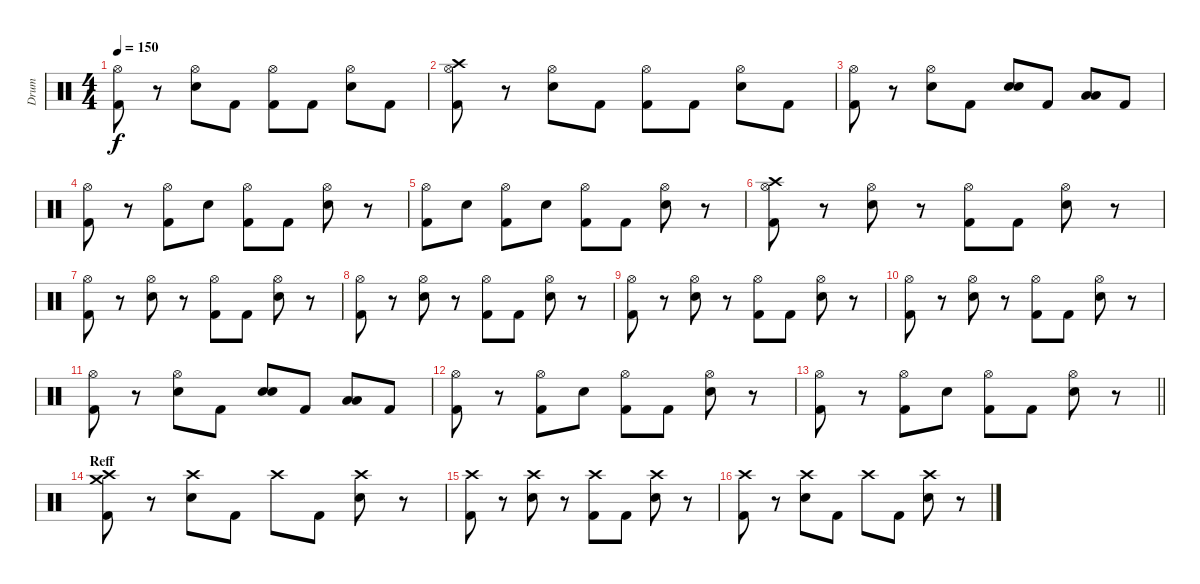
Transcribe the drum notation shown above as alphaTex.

\track ("Drum" "Drum") {instrument percussion}
\staff {score}
\articulation defaults
\ts (4 4)
\tempo 150
\clef neutral
\ks c
("Hi-Hat (open)" "Kick (hit) 2").8{dy f} r.8 ("Hi-Hat (open)" "Electric Snare (hit)").8 "Kick (hit) 2".8 ("Hi-Hat (open)" "Kick (hit) 2").8 "Kick (hit) 2".8 ("Hi-Hat (open)" "Electric Snare (hit)").8 "Kick (hit) 2".8 |
("Hi-Hat (open)" "Kick (hit) 2" "Crash high (hit)").8 r.8 ("Hi-Hat (open)" "Electric Snare (hit)").8 "Kick (hit) 2".8 ("Hi-Hat (open)" "Kick (hit) 2").8 "Kick (hit) 2".8 ("Hi-Hat (open)" "Electric Snare (hit)").8 "Kick (hit) 2".8 |
("Hi-Hat (open)" "Kick (hit) 2").8 r.8 ("Hi-Hat (open)" "Electric Snare (hit)").8 "Kick (hit) 2".8 ("Electric Snare (hit)" "Electric Snare (hit)").8 "Kick (hit) 2".8 ("Low Floor Tom (hit)" "Low Floor Tom (hit)").8 "Kick (hit) 2".8 |
("Hi-Hat (open)" "Kick (hit) 2").8 r.8 ("Hi-Hat (open)" "Kick (hit) 2").8 "Electric Snare (hit)".8 ("Hi-Hat (open)" "Kick (hit) 2").8 "Kick (hit) 2".8 ("Hi-Hat (open)" "Electric Snare (hit)").8 r.8 |
("Hi-Hat (open)" "Kick (hit) 2").8 "Electric Snare (hit)".8 ("Hi-Hat (open)" "Kick (hit) 2").8 "Electric Snare (hit)".8 ("Hi-Hat (open)" "Kick (hit) 2").8 "Kick (hit) 2".8 ("Hi-Hat (open)" "Electric Snare (hit)").8 r.8 |
("Hi-Hat (open)" "Kick (hit) 2" "Crash high (hit)").8 r.8 ("Hi-Hat (open)" "Electric Snare (hit)").8 r.8 ("Hi-Hat (open)" "Kick (hit) 2").8 "Kick (hit) 2".8 ("Hi-Hat (open)" "Electric Snare (hit)").8 r.8 |
("Hi-Hat (open)" "Kick (hit) 2").8 r.8 ("Hi-Hat (open)" "Electric Snare (hit)").8 r.8 ("Hi-Hat (open)" "Kick (hit) 2").8 "Kick (hit) 2".8 ("Hi-Hat (open)" "Electric Snare (hit)").8 r.8 |
("Hi-Hat (open)" "Kick (hit) 2").8 r.8 ("Hi-Hat (open)" "Electric Snare (hit)").8 r.8 ("Hi-Hat (open)" "Kick (hit) 2").8 "Kick (hit) 2".8 ("Hi-Hat (open)" "Electric Snare (hit)").8 r.8 |
("Hi-Hat (open)" "Kick (hit) 2").8 r.8 ("Hi-Hat (open)" "Electric Snare (hit)").8 r.8 ("Hi-Hat (open)" "Kick (hit) 2").8 "Kick (hit) 2".8 ("Hi-Hat (open)" "Electric Snare (hit)").8 r.8 |
("Hi-Hat (open)" "Kick (hit) 2").8 r.8 ("Hi-Hat (open)" "Electric Snare (hit)").8 r.8 ("Hi-Hat (open)" "Kick (hit) 2").8 "Kick (hit) 2".8 ("Hi-Hat (open)" "Electric Snare (hit)").8 r.8 |
("Hi-Hat (open)" "Kick (hit) 2").8 r.8 ("Hi-Hat (open)" "Electric Snare (hit)").8 "Kick (hit) 2".8 ("Electric Snare (hit)" "Electric Snare (hit)").8 "Kick (hit) 2".8 ("Low Floor Tom (hit)" "Low Floor Tom (hit)").8 "Kick (hit) 2".8 |
("Hi-Hat (open)" "Kick (hit) 2").8 r.8 ("Hi-Hat (open)" "Kick (hit) 2").8 "Electric Snare (hit)".8 ("Hi-Hat (open)" "Kick (hit) 2").8 "Kick (hit) 2".8 ("Hi-Hat (open)" "Electric Snare (hit)").8 r.8 |
\barLineRight lightlight
("Hi-Hat (open)" "Kick (hit) 2").8 r.8 ("Hi-Hat (open)" "Kick (hit) 2").8 "Electric Snare (hit)".8 ("Hi-Hat (open)" "Kick (hit) 2").8 "Kick (hit) 2".8 ("Hi-Hat (open)" "Electric Snare (hit)").8 r.8 |
\section ("" "Reff")
("Crash high (hit)" "Kick (hit) 2" "Crash medium (hit)").8 r.8 ("Crash high (hit)" "Electric Snare (hit)").8 "Kick (hit) 2".8 "Crash high (hit)".8 "Kick (hit) 2".8 ("Crash high (hit)" "Electric Snare (hit)").8 r.8 |
("Crash high (hit)" "Kick (hit) 2").8 r.8 ("Crash high (hit)" "Electric Snare (hit)").8 r.8 ("Crash high (hit)" "Kick (hit) 2").8 "Kick (hit) 2".8 ("Crash high (hit)" "Electric Snare (hit)").8 r.8 |
("Crash high (hit)" "Kick (hit) 2").8 r.8 ("Crash high (hit)" "Electric Snare (hit)").8 "Kick (hit) 2".8 "Crash high (hit)".8 "Kick (hit) 2".8 ("Crash high (hit)" "Electric Snare (hit)").8 r.8
